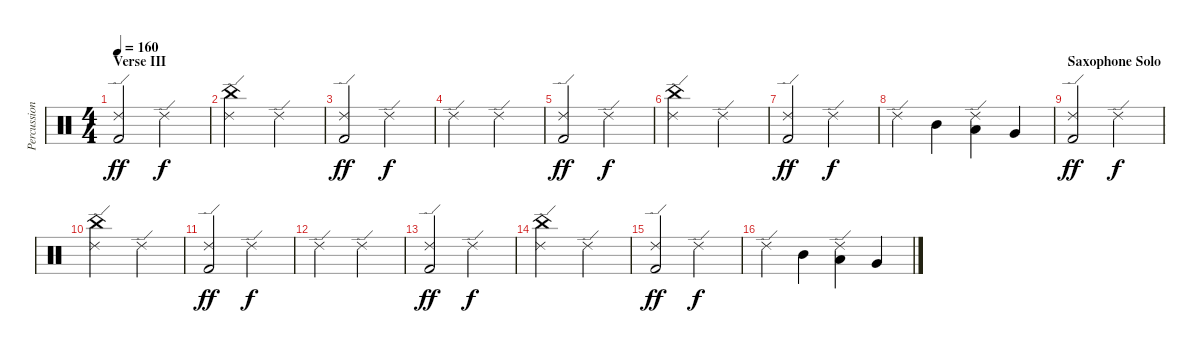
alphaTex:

\track ("Percussion" "Percussion") {instrument percussion}
\staff {score}
\articulation defaults
\ts (4 4)
\section ("" "Verse III")
\tempo 160
\clef neutral
\ks c
("Ride (edge) 2" "Kick (hit) 2").2{dy ff} "Ride (edge) 2".2{dy f} |
("China (hit)" "Ride (edge) 2").2 "Ride (edge) 2".2 |
("Ride (edge) 2" "Kick (hit) 2").2{dy ff} "Ride (edge) 2".2{dy f} |
"Ride (edge) 2".2 "Ride (edge) 2".2 |
("Ride (edge) 2" "Kick (hit) 2").2{dy ff} "Ride (edge) 2".2{dy f} |
("China (hit)" "Ride (edge) 2").2 "Ride (edge) 2".2 |
("Ride (edge) 2" "Kick (hit) 2").2{dy ff} "Ride (edge) 2".2{dy f} |
"Ride (edge) 2".4 "Mid Tom (hit)".4 ("Ride (edge) 2" "Low Tom (hit)").4 "Very Low Tom (hit)".4 |
\section ("" "Saxophone Solo")
("Ride (edge) 2" "Kick (hit) 2").2{dy ff} "Ride (edge) 2".2{dy f} |
("China (hit)" "Ride (edge) 2").2 "Ride (edge) 2".2 |
("Ride (edge) 2" "Kick (hit) 2").2{dy ff} "Ride (edge) 2".2{dy f} |
"Ride (edge) 2".2 "Ride (edge) 2".2 |
("Ride (edge) 2" "Kick (hit) 2").2{dy ff} "Ride (edge) 2".2{dy f} |
("China (hit)" "Ride (edge) 2").2 "Ride (edge) 2".2 |
("Ride (edge) 2" "Kick (hit) 2").2{dy ff} "Ride (edge) 2".2{dy f} |
"Ride (edge) 2".4 "Mid Tom (hit)".4 ("Ride (edge) 2" "Low Tom (hit)").4 "Very Low Tom (hit)".4
